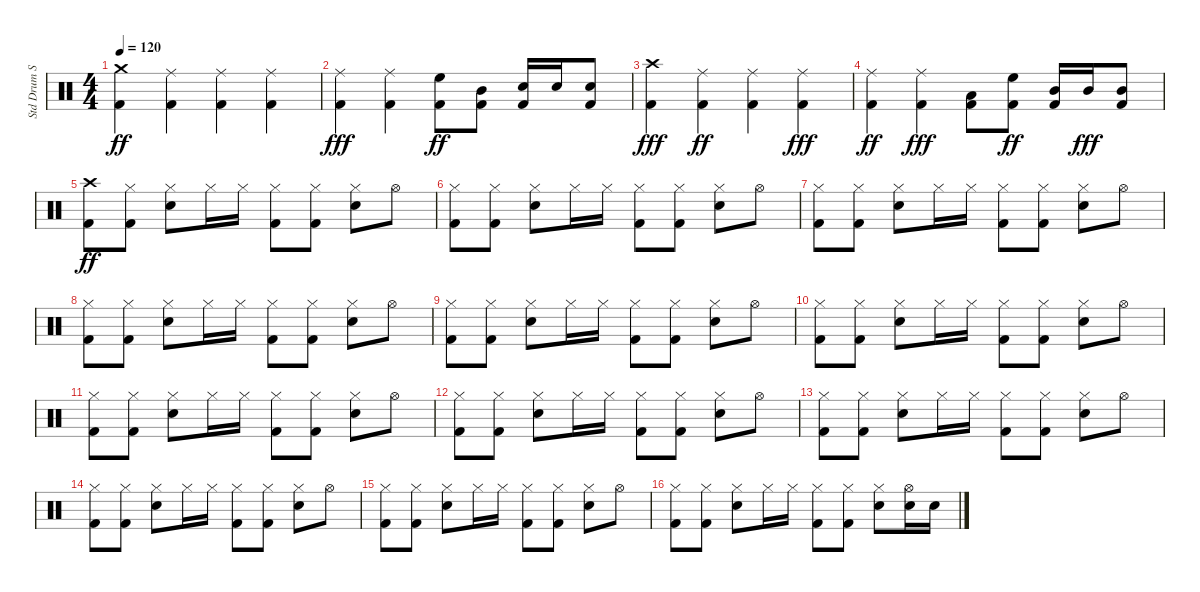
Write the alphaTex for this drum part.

\track ("Std Drum Set 1" "Std Drum S") {instrument percussion}
\staff {score}
\articulation defaults
\ts (4 4)
\tempo 120
\clef neutral
\ks c
("Crash medium (hit)" "Kick (hit) 2").4{dy ff} ("Ride (middle)" "Kick (hit) 2").4 ("Ride (middle)" "Kick (hit) 2").4 ("Ride (middle)" "Kick (hit) 2").4 |
("Kick (hit) 2" "Ride (middle)").4{dy fff} ("Kick (hit) 2" "Ride (middle)").4 ("High Floor Tom (hit)" "Kick (hit) 2").8{dy ff} ("Mid Tom (hit)" "Kick (hit) 2").8 ("Snare (hit) 2" "Kick (hit) 2").16 "Snare (hit) 2".16 ("Snare (hit) 2" "Kick (hit) 2").8 |
("Kick (hit) 2" "Crash high (hit)").4{dy fff} ("Ride (middle)" "Kick (hit) 2").4{dy ff} ("Ride (middle)" "Kick (hit) 2").4 ("Kick (hit) 2" "Ride (middle)").4{dy fff} |
("Ride (middle)" "Kick (hit) 2").4{dy ff} ("Kick (hit) 2" "Ride (middle)").4{dy fff} ("Kick (hit) 2" "Low Tom (hit)").8 ("High Floor Tom (hit)" "Kick (hit) 2").8{dy ff} ("Mid Tom (hit)" "Kick (hit) 2").16 "Mid Tom (hit)".16{dy fff} ("Kick (hit) 2" "Mid Tom (hit)").8 |
("Crash high (hit)" "Kick (hit) 2").8{dy ff} ("Hi-Hat (closed)" "Kick (hit) 2").8 ("Hi-Hat (closed)" "Snare (hit) 2").8 "Hi-Hat (closed)".16 "Hi-Hat (closed)".16 ("Hi-Hat (closed)" "Kick (hit) 2").8 ("Kick (hit) 2" "Hi-Hat (closed)").8 ("Hi-Hat (closed)" "Snare (hit) 2").8 "Hi-Hat (open)".8 |
("Hi-Hat (closed)" "Kick (hit) 2").8 ("Hi-Hat (closed)" "Kick (hit) 2").8 ("Hi-Hat (closed)" "Snare (hit) 2").8 "Hi-Hat (closed)".16 "Hi-Hat (closed)".16 ("Hi-Hat (closed)" "Kick (hit) 2").8 ("Hi-Hat (closed)" "Kick (hit) 2").8 ("Hi-Hat (closed)" "Snare (hit) 2").8 "Hi-Hat (open)".8 |
("Hi-Hat (closed)" "Kick (hit) 2").8 ("Hi-Hat (closed)" "Kick (hit) 2").8 ("Hi-Hat (closed)" "Snare (hit) 2").8 "Hi-Hat (closed)".16 "Hi-Hat (closed)".16 ("Hi-Hat (closed)" "Kick (hit) 2").8 ("Hi-Hat (closed)" "Kick (hit) 2").8 ("Hi-Hat (closed)" "Snare (hit) 2").8 "Hi-Hat (open)".8 |
("Hi-Hat (closed)" "Kick (hit) 2").8 ("Kick (hit) 2" "Hi-Hat (closed)").8 ("Snare (hit) 2" "Hi-Hat (closed)").8 "Hi-Hat (closed)".16 "Hi-Hat (closed)".16 ("Hi-Hat (closed)" "Kick (hit) 2").8 ("Hi-Hat (closed)" "Kick (hit) 2").8 ("Snare (hit) 2" "Hi-Hat (closed)").8 "Hi-Hat (open)".8 |
("Kick (hit) 2" "Hi-Hat (closed)").8 ("Kick (hit) 2" "Hi-Hat (closed)").8 ("Hi-Hat (closed)" "Snare (hit) 2").8 "Hi-Hat (closed)".16 "Hi-Hat (closed)".16 ("Kick (hit) 2" "Hi-Hat (closed)").8 ("Hi-Hat (closed)" "Kick (hit) 2").8 ("Hi-Hat (closed)" "Snare (hit) 2").8 "Hi-Hat (open)".8 |
("Kick (hit) 2" "Hi-Hat (closed)").8 ("Hi-Hat (closed)" "Kick (hit) 2").8 ("Hi-Hat (closed)" "Snare (hit) 2").8 "Hi-Hat (closed)".16 "Hi-Hat (closed)".16 ("Hi-Hat (closed)" "Kick (hit) 2").8 ("Hi-Hat (closed)" "Kick (hit) 2").8 ("Hi-Hat (closed)" "Snare (hit) 2").8 "Hi-Hat (open)".8 |
("Hi-Hat (closed)" "Kick (hit) 2").8 ("Kick (hit) 2" "Hi-Hat (closed)").8 ("Hi-Hat (closed)" "Snare (hit) 2").8 "Hi-Hat (closed)".16 "Hi-Hat (closed)".16 ("Hi-Hat (closed)" "Kick (hit) 2").8 ("Hi-Hat (closed)" "Kick (hit) 2").8 ("Snare (hit) 2" "Hi-Hat (closed)").8 "Hi-Hat (open)".8 |
("Kick (hit) 2" "Hi-Hat (closed)").8 ("Hi-Hat (closed)" "Kick (hit) 2").8 ("Snare (hit) 2" "Hi-Hat (closed)").8 "Hi-Hat (closed)".16 "Hi-Hat (closed)".16 ("Kick (hit) 2" "Hi-Hat (closed)").8 ("Hi-Hat (closed)" "Kick (hit) 2").8 ("Hi-Hat (closed)" "Snare (hit) 2").8 "Hi-Hat (open)".8 |
("Hi-Hat (closed)" "Kick (hit) 2").8 ("Hi-Hat (closed)" "Kick (hit) 2").8 ("Hi-Hat (closed)" "Snare (hit) 2").8 "Hi-Hat (closed)".16 "Hi-Hat (closed)".16 ("Hi-Hat (closed)" "Kick (hit) 2").8 ("Kick (hit) 2" "Hi-Hat (closed)").8 ("Hi-Hat (closed)" "Snare (hit) 2").8 "Hi-Hat (open)".8 |
("Kick (hit) 2" "Hi-Hat (closed)").8 ("Hi-Hat (closed)" "Kick (hit) 2").8 ("Hi-Hat (closed)" "Snare (hit) 2").8 "Hi-Hat (closed)".16 "Hi-Hat (closed)".16 ("Hi-Hat (closed)" "Kick (hit) 2").8 ("Kick (hit) 2" "Hi-Hat (closed)").8 ("Snare (hit) 2" "Hi-Hat (closed)").8 "Hi-Hat (open)".8 |
("Hi-Hat (closed)" "Kick (hit) 2").8 ("Hi-Hat (closed)" "Kick (hit) 2").8 ("Hi-Hat (closed)" "Snare (hit) 2").8 "Hi-Hat (closed)".16 "Hi-Hat (closed)".16 ("Hi-Hat (closed)" "Kick (hit) 2").8 ("Hi-Hat (closed)" "Kick (hit) 2").8 ("Hi-Hat (closed)" "Snare (hit) 2").8 "Hi-Hat (open)".8 |
("Kick (hit) 2" "Hi-Hat (closed)").8 ("Hi-Hat (closed)" "Kick (hit) 2").8 ("Hi-Hat (closed)" "Snare (hit) 2").8 "Hi-Hat (closed)".16 "Hi-Hat (closed)".16 ("Hi-Hat (closed)" "Kick (hit) 2").8 ("Kick (hit) 2" "Hi-Hat (closed)").8 ("Hi-Hat (closed)" "Snare (hit) 2").8 ("Snare (hit) 2" "Hi-Hat (open)").16 "Snare (hit) 2".16
